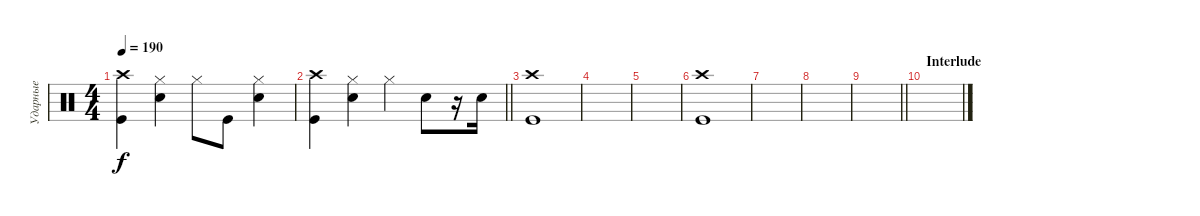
\track ("Ударные" "Ударные") {instrument percussion}
\staff {score}
\articulation defaults
\ts (4 4)
\tempo 190
\clef neutral
\ks aminor
("Kick (hit)" "Crash high (hit)").4{dy f} ("Snare (hit) 2" "Hi-Hat (closed)").4 "Hi-Hat (closed)".8 "Kick (hit)".8 ("Snare (hit) 2" "Hi-Hat (closed)").4 |
\barLineRight lightlight
("Kick (hit)" "Crash high (hit)").4 ("Snare (hit) 2" "Hi-Hat (closed)").4 "Hi-Hat (closed)".4 "Snare (hit) 2".8 r.16 "Snare (hit) 2".16 |
("Kick (hit)" "Crash high (hit)").1 |
|
|
("Kick (hit)" "Crash high (hit)").1 |
|
|
\barLineRight lightlight
|
\section ("" "Interlude")
